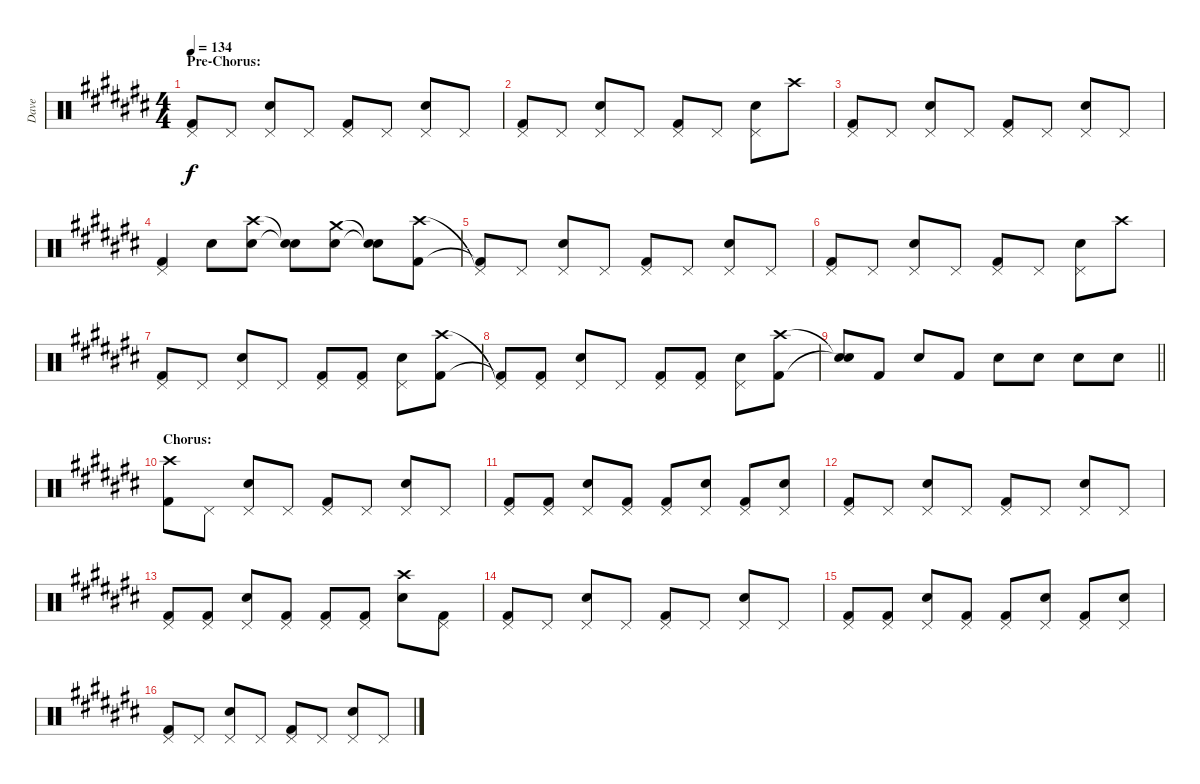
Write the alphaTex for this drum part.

\track ("Dave" "Dave") {instrument percussion}
\staff {score}
\articulation defaults
\ts (4 4)
\section ("" "Pre-Chorus:")
\tempo 134
\clef neutral
\ks c#
("Pedal Hi-Hat (hit)"{t} "Kick (hit) 2"{t}).8{dy f} "Pedal Hi-Hat (hit)".8 ("Pedal Hi-Hat (hit)" "Snare (hit) 2").8 "Pedal Hi-Hat (hit)".8 ("Pedal Hi-Hat (hit)" "Kick (hit) 2").8 "Pedal Hi-Hat (hit)".8 ("Pedal Hi-Hat (hit)" "Snare (hit) 2").8 "Pedal Hi-Hat (hit)".8 |
("Pedal Hi-Hat (hit)" "Kick (hit) 2").8 "Pedal Hi-Hat (hit)".8 ("Pedal Hi-Hat (hit)" "Snare (hit) 2").8 "Pedal Hi-Hat (hit)".8 ("Pedal Hi-Hat (hit)" "Kick (hit) 2").8 "Pedal Hi-Hat (hit)".8 ("Pedal Hi-Hat (hit)" "Snare (hit) 2").8 "Crash high (hit)".8 |
("Pedal Hi-Hat (hit)" "Kick (hit) 2").8 "Pedal Hi-Hat (hit)".8 ("Pedal Hi-Hat (hit)" "Snare (hit) 2").8 "Pedal Hi-Hat (hit)".8 ("Pedal Hi-Hat (hit)" "Kick (hit) 2").8 "Pedal Hi-Hat (hit)".8 ("Pedal Hi-Hat (hit)" "Snare (hit) 2").8 "Pedal Hi-Hat (hit)".8 |
("Pedal Hi-Hat (hit)" "Kick (hit) 2").4 "Snare (hit) 2".8 ("Crash high (hit)" "Snare (hit) 2").8 ("Snare (hit)"{t} "Snare (hit)"{t}).8 ("Crash medium (hit)" "Snare (hit) 2").8 ("Snare (hit)"{t} "Snare (hit)"{t}).8 ("Crash high (hit)" "Kick (hit) 2").8 |
("Pedal Hi-Hat (hit)"{t} "Kick (hit) 2"{t}).8 "Pedal Hi-Hat (hit)".8 ("Pedal Hi-Hat (hit)" "Snare (hit) 2").8 "Pedal Hi-Hat (hit)".8 ("Pedal Hi-Hat (hit)" "Kick (hit) 2").8 "Pedal Hi-Hat (hit)".8 ("Pedal Hi-Hat (hit)" "Snare (hit) 2").8 "Pedal Hi-Hat (hit)".8 |
("Pedal Hi-Hat (hit)" "Kick (hit) 2").8 "Pedal Hi-Hat (hit)".8 ("Pedal Hi-Hat (hit)" "Snare (hit) 2").8 "Pedal Hi-Hat (hit)".8 ("Pedal Hi-Hat (hit)" "Kick (hit) 2").8 "Pedal Hi-Hat (hit)".8 ("Pedal Hi-Hat (hit)" "Snare (hit) 2").8 "Crash high (hit)".8 |
("Pedal Hi-Hat (hit)" "Kick (hit) 2").8 "Pedal Hi-Hat (hit)".8 ("Pedal Hi-Hat (hit)" "Snare (hit) 2").8 "Pedal Hi-Hat (hit)".8 ("Pedal Hi-Hat (hit)" "Kick (hit) 2").8 ("Pedal Hi-Hat (hit)" "Kick (hit) 2").8 ("Pedal Hi-Hat (hit)" "Snare (hit) 2").8 ("Crash high (hit)" "Kick (hit) 2").8 |
("Pedal Hi-Hat (hit)"{t} "Kick (hit) 2"{t}).8 ("Pedal Hi-Hat (hit)" "Kick (hit) 2").8 ("Pedal Hi-Hat (hit)" "Snare (hit) 2").8 "Pedal Hi-Hat (hit)".8 ("Pedal Hi-Hat (hit)" "Kick (hit) 2").8 ("Pedal Hi-Hat (hit)" "Kick (hit) 2").8 ("Pedal Hi-Hat (hit)" "Snare (hit) 2").8 ("Crash high (hit)" "Kick (hit) 2").8 |
\barLineRight lightlight
("Snare (hit)"{t} "Snare (hit)"{t}).8 "Kick (hit) 2".8 "Snare (hit) 2".8 "Kick (hit) 2".8 "Snare (hit) 2".8 "Snare (hit) 2".8 "Snare (hit) 2".8 "Snare (hit) 2".8 |
\section ("" "Chorus:")
("Crash high (hit)" "Kick (hit) 2").8 "Pedal Hi-Hat (hit)".8 ("Pedal Hi-Hat (hit)" "Snare (hit) 2").8 "Pedal Hi-Hat (hit)".8 ("Pedal Hi-Hat (hit)" "Kick (hit) 2").8 "Pedal Hi-Hat (hit)".8 ("Pedal Hi-Hat (hit)" "Snare (hit) 2").8 "Pedal Hi-Hat (hit)".8 |
("Pedal Hi-Hat (hit)" "Kick (hit) 2").8 ("Pedal Hi-Hat (hit)" "Kick (hit) 2").8 ("Pedal Hi-Hat (hit)" "Snare (hit) 2").8 ("Pedal Hi-Hat (hit)" "Kick (hit) 2").8 ("Pedal Hi-Hat (hit)" "Kick (hit) 2").8 ("Pedal Hi-Hat (hit)" "Snare (hit) 2").8 ("Pedal Hi-Hat (hit)" "Kick (hit) 2").8 ("Pedal Hi-Hat (hit)" "Snare (hit) 2").8 |
("Pedal Hi-Hat (hit)" "Kick (hit) 2").8 "Pedal Hi-Hat (hit)".8 ("Pedal Hi-Hat (hit)" "Snare (hit) 2").8 "Pedal Hi-Hat (hit)".8 ("Pedal Hi-Hat (hit)" "Kick (hit) 2").8 "Pedal Hi-Hat (hit)".8 ("Pedal Hi-Hat (hit)" "Snare (hit) 2").8 "Pedal Hi-Hat (hit)".8 |
("Pedal Hi-Hat (hit)" "Kick (hit) 2").8 ("Pedal Hi-Hat (hit)" "Kick (hit) 2").8 ("Pedal Hi-Hat (hit)" "Snare (hit) 2").8 ("Pedal Hi-Hat (hit)" "Kick (hit) 2").8 ("Pedal Hi-Hat (hit)" "Kick (hit) 2").8 ("Pedal Hi-Hat (hit)" "Kick (hit) 2").8 ("Crash high (hit)" "Snare (hit) 2").8 ("Pedal Hi-Hat (hit)" "Kick (hit) 2").8 |
("Pedal Hi-Hat (hit)" "Kick (hit) 2").8 "Pedal Hi-Hat (hit)".8 ("Pedal Hi-Hat (hit)" "Snare (hit) 2").8 "Pedal Hi-Hat (hit)".8 ("Pedal Hi-Hat (hit)" "Kick (hit) 2").8 "Pedal Hi-Hat (hit)".8 ("Pedal Hi-Hat (hit)" "Snare (hit) 2").8 "Pedal Hi-Hat (hit)".8 |
("Pedal Hi-Hat (hit)" "Kick (hit) 2").8 ("Pedal Hi-Hat (hit)" "Kick (hit) 2").8 ("Pedal Hi-Hat (hit)" "Snare (hit) 2").8 ("Pedal Hi-Hat (hit)" "Kick (hit) 2").8 ("Pedal Hi-Hat (hit)" "Kick (hit) 2").8 ("Pedal Hi-Hat (hit)" "Snare (hit) 2").8 ("Pedal Hi-Hat (hit)" "Kick (hit) 2").8 ("Pedal Hi-Hat (hit)" "Snare (hit) 2").8 |
("Pedal Hi-Hat (hit)" "Kick (hit) 2").8 "Pedal Hi-Hat (hit)".8 ("Pedal Hi-Hat (hit)" "Snare (hit) 2").8 "Pedal Hi-Hat (hit)".8 ("Pedal Hi-Hat (hit)" "Kick (hit) 2").8 "Pedal Hi-Hat (hit)".8 ("Pedal Hi-Hat (hit)" "Snare (hit) 2").8 "Pedal Hi-Hat (hit)".8
